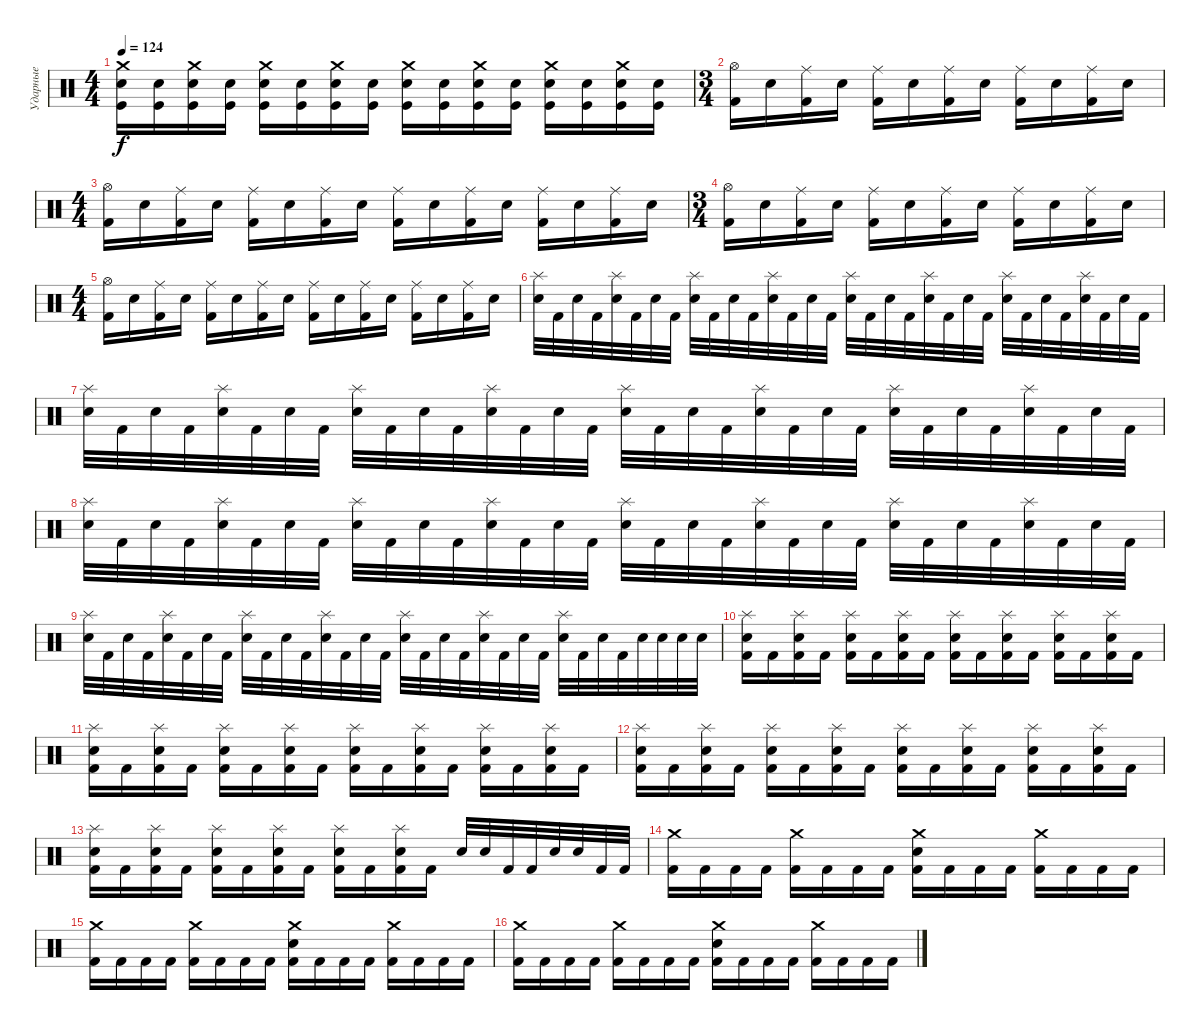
\track ("Ударные" "Ударные") {instrument percussion}
\staff {score}
\articulation defaults
\ts (4 4)
\tempo 124
\clef neutral
\ks c
("Crash medium (hit)" "Electric Snare (hit)" "Kick (hit)").16{dy f} ("Electric Snare (hit)" "Kick (hit)").16 ("Crash medium (hit)" "Electric Snare (hit)" "Kick (hit)").16 ("Electric Snare (hit)" "Kick (hit)").16 ("Crash medium (hit)" "Electric Snare (hit)" "Kick (hit)").16 ("Electric Snare (hit)" "Kick (hit)").16 ("Crash medium (hit)" "Electric Snare (hit)" "Kick (hit)").16 ("Electric Snare (hit)" "Kick (hit)").16 ("Crash medium (hit)" "Electric Snare (hit)" "Kick (hit)").16 ("Electric Snare (hit)" "Kick (hit)").16 ("Crash medium (hit)" "Electric Snare (hit)" "Kick (hit)").16 ("Electric Snare (hit)" "Kick (hit)").16 ("Crash medium (hit)" "Electric Snare (hit)" "Kick (hit)").16 ("Electric Snare (hit)" "Kick (hit)").16 ("Crash medium (hit)" "Electric Snare (hit)" "Kick (hit)").16 ("Electric Snare (hit)" "Kick (hit)").16 |
\ts (3 4)
("Hi-Hat (open)" "Kick (hit) 2").16 "Electric Snare (hit)".16 ("Ride (middle)" "Kick (hit) 2").16 "Electric Snare (hit)".16 ("Ride (middle)" "Kick (hit) 2").16 "Electric Snare (hit)".16 ("Ride (middle)" "Kick (hit) 2").16 "Electric Snare (hit)".16 ("Ride (middle)" "Kick (hit) 2").16 "Electric Snare (hit)".16 ("Ride (middle)" "Kick (hit) 2").16 "Electric Snare (hit)".16 |
\ts (4 4)
("Hi-Hat (open)" "Kick (hit) 2").16 "Electric Snare (hit)".16 ("Ride (middle)" "Kick (hit) 2").16 "Electric Snare (hit)".16 ("Ride (middle)" "Kick (hit) 2").16 "Electric Snare (hit)".16 ("Ride (middle)" "Kick (hit) 2").16 "Electric Snare (hit)".16 ("Ride (middle)" "Kick (hit) 2").16 "Electric Snare (hit)".16 ("Ride (middle)" "Kick (hit) 2").16 "Electric Snare (hit)".16 ("Ride (middle)" "Kick (hit) 2").16 "Electric Snare (hit)".16 ("Ride (middle)" "Kick (hit) 2").16 "Electric Snare (hit)".16 |
\ts (3 4)
("Hi-Hat (open)" "Kick (hit) 2").16 "Electric Snare (hit)".16 ("Ride (middle)" "Kick (hit) 2").16 "Electric Snare (hit)".16 ("Ride (middle)" "Kick (hit) 2").16 "Electric Snare (hit)".16 ("Ride (middle)" "Kick (hit) 2").16 "Electric Snare (hit)".16 ("Ride (middle)" "Kick (hit) 2").16 "Electric Snare (hit)".16 ("Ride (middle)" "Kick (hit) 2").16 "Electric Snare (hit)".16 |
\ts (4 4)
("Hi-Hat (open)" "Kick (hit) 2").16 "Electric Snare (hit)".16 ("Ride (middle)" "Kick (hit) 2").16 "Electric Snare (hit)".16 ("Ride (middle)" "Kick (hit) 2").16 "Electric Snare (hit)".16 ("Ride (middle)" "Kick (hit) 2").16 "Electric Snare (hit)".16 ("Ride (middle)" "Kick (hit) 2").16 "Electric Snare (hit)".16 ("Ride (middle)" "Kick (hit) 2").16 "Electric Snare (hit)".16 ("Ride (middle)" "Kick (hit) 2").16 "Electric Snare (hit)".16 ("Ride (middle)" "Kick (hit) 2").16 "Electric Snare (hit)".16 |
("Splash (hit)" "Electric Snare (hit)").32 "Kick (hit) 2".32 "Electric Snare (hit)".32 "Kick (hit) 2".32 ("Splash (hit)" "Electric Snare (hit)").32 "Kick (hit) 2".32 "Electric Snare (hit)".32 "Kick (hit) 2".32 ("Splash (hit)" "Electric Snare (hit)").32 "Kick (hit) 2".32 "Electric Snare (hit)".32 "Kick (hit) 2".32 ("Splash (hit)" "Electric Snare (hit)").32 "Kick (hit) 2".32 "Electric Snare (hit)".32 "Kick (hit) 2".32 ("Splash (hit)" "Electric Snare (hit)").32 "Kick (hit) 2".32 "Electric Snare (hit)".32 "Kick (hit) 2".32 ("Splash (hit)" "Electric Snare (hit)").32 "Kick (hit) 2".32 "Electric Snare (hit)".32 "Kick (hit) 2".32 ("Splash (hit)" "Electric Snare (hit)").32 "Kick (hit) 2".32 "Electric Snare (hit)".32 "Kick (hit) 2".32 ("Splash (hit)" "Electric Snare (hit)").32 "Kick (hit) 2".32 "Electric Snare (hit)".32 "Kick (hit) 2".32 |
("Splash (hit)" "Electric Snare (hit)").32 "Kick (hit) 2".32 "Electric Snare (hit)".32 "Kick (hit) 2".32 ("Splash (hit)" "Electric Snare (hit)").32 "Kick (hit) 2".32 "Electric Snare (hit)".32 "Kick (hit) 2".32 ("Splash (hit)" "Electric Snare (hit)").32 "Kick (hit) 2".32 "Electric Snare (hit)".32 "Kick (hit) 2".32 ("Splash (hit)" "Electric Snare (hit)").32 "Kick (hit) 2".32 "Electric Snare (hit)".32 "Kick (hit) 2".32 ("Splash (hit)" "Electric Snare (hit)").32 "Kick (hit) 2".32 "Electric Snare (hit)".32 "Kick (hit) 2".32 ("Splash (hit)" "Electric Snare (hit)").32 "Kick (hit) 2".32 "Electric Snare (hit)".32 "Kick (hit) 2".32 ("Splash (hit)" "Electric Snare (hit)").32 "Kick (hit) 2".32 "Electric Snare (hit)".32 "Kick (hit) 2".32 ("Splash (hit)" "Electric Snare (hit)").32 "Kick (hit) 2".32 "Electric Snare (hit)".32 "Kick (hit) 2".32 |
("Splash (hit)" "Electric Snare (hit)").32 "Kick (hit) 2".32 "Electric Snare (hit)".32 "Kick (hit) 2".32 ("Splash (hit)" "Electric Snare (hit)").32 "Kick (hit) 2".32 "Electric Snare (hit)".32 "Kick (hit) 2".32 ("Splash (hit)" "Electric Snare (hit)").32 "Kick (hit) 2".32 "Electric Snare (hit)".32 "Kick (hit) 2".32 ("Splash (hit)" "Electric Snare (hit)").32 "Kick (hit) 2".32 "Electric Snare (hit)".32 "Kick (hit) 2".32 ("Splash (hit)" "Electric Snare (hit)").32 "Kick (hit) 2".32 "Electric Snare (hit)".32 "Kick (hit) 2".32 ("Splash (hit)" "Electric Snare (hit)").32 "Kick (hit) 2".32 "Electric Snare (hit)".32 "Kick (hit) 2".32 ("Splash (hit)" "Electric Snare (hit)").32 "Kick (hit) 2".32 "Electric Snare (hit)".32 "Kick (hit) 2".32 ("Splash (hit)" "Electric Snare (hit)").32 "Kick (hit) 2".32 "Electric Snare (hit)".32 "Kick (hit) 2".32 |
("Splash (hit)" "Electric Snare (hit)").32 "Kick (hit) 2".32 "Electric Snare (hit)".32 "Kick (hit) 2".32 ("Splash (hit)" "Electric Snare (hit)").32 "Kick (hit) 2".32 "Electric Snare (hit)".32 "Kick (hit) 2".32 ("Splash (hit)" "Electric Snare (hit)").32 "Kick (hit) 2".32 "Electric Snare (hit)".32 "Kick (hit) 2".32 ("Splash (hit)" "Electric Snare (hit)").32 "Kick (hit) 2".32 "Electric Snare (hit)".32 "Kick (hit) 2".32 ("Splash (hit)" "Electric Snare (hit)").32 "Kick (hit) 2".32 "Electric Snare (hit)".32 "Kick (hit) 2".32 ("Splash (hit)" "Electric Snare (hit)").32 "Kick (hit) 2".32 "Electric Snare (hit)".32 "Kick (hit) 2".32 ("Splash (hit)" "Electric Snare (hit)").32 "Kick (hit) 2".32 "Electric Snare (hit)".32 "Kick (hit) 2".32 "Electric Snare (hit)".32 "Electric Snare (hit)".32 "Electric Snare (hit)".32 "Electric Snare (hit)".32 |
("Splash (hit)" "Electric Snare (hit)" "Kick (hit) 2").16 "Kick (hit) 2".16 ("Splash (hit)" "Electric Snare (hit)" "Kick (hit) 2").16 "Kick (hit) 2".16 ("Splash (hit)" "Electric Snare (hit)" "Kick (hit) 2").16 "Kick (hit) 2".16 ("Splash (hit)" "Electric Snare (hit)" "Kick (hit) 2").16 "Kick (hit) 2".16 ("Splash (hit)" "Electric Snare (hit)" "Kick (hit) 2").16 "Kick (hit) 2".16 ("Splash (hit)" "Electric Snare (hit)" "Kick (hit) 2").16 "Kick (hit) 2".16 ("Splash (hit)" "Electric Snare (hit)" "Kick (hit) 2").16 "Kick (hit) 2".16 ("Splash (hit)" "Electric Snare (hit)" "Kick (hit) 2").16 "Kick (hit) 2".16 |
("Splash (hit)" "Electric Snare (hit)" "Kick (hit) 2").16 "Kick (hit) 2".16 ("Splash (hit)" "Electric Snare (hit)" "Kick (hit) 2").16 "Kick (hit) 2".16 ("Splash (hit)" "Electric Snare (hit)" "Kick (hit) 2").16 "Kick (hit) 2".16 ("Splash (hit)" "Electric Snare (hit)" "Kick (hit) 2").16 "Kick (hit) 2".16 ("Splash (hit)" "Electric Snare (hit)" "Kick (hit) 2").16 "Kick (hit) 2".16 ("Splash (hit)" "Electric Snare (hit)" "Kick (hit) 2").16 "Kick (hit) 2".16 ("Splash (hit)" "Electric Snare (hit)" "Kick (hit) 2").16 "Kick (hit) 2".16 ("Splash (hit)" "Electric Snare (hit)" "Kick (hit) 2").16 "Kick (hit) 2".16 |
("Splash (hit)" "Electric Snare (hit)" "Kick (hit) 2").16 "Kick (hit) 2".16 ("Splash (hit)" "Electric Snare (hit)" "Kick (hit) 2").16 "Kick (hit) 2".16 ("Splash (hit)" "Electric Snare (hit)" "Kick (hit) 2").16 "Kick (hit) 2".16 ("Splash (hit)" "Electric Snare (hit)" "Kick (hit) 2").16 "Kick (hit) 2".16 ("Splash (hit)" "Electric Snare (hit)" "Kick (hit) 2").16 "Kick (hit) 2".16 ("Splash (hit)" "Electric Snare (hit)" "Kick (hit) 2").16 "Kick (hit) 2".16 ("Splash (hit)" "Electric Snare (hit)" "Kick (hit) 2").16 "Kick (hit) 2".16 ("Splash (hit)" "Electric Snare (hit)" "Kick (hit) 2").16 "Kick (hit) 2".16 |
("Splash (hit)" "Electric Snare (hit)" "Kick (hit) 2").16 "Kick (hit) 2".16 ("Splash (hit)" "Electric Snare (hit)" "Kick (hit) 2").16 "Kick (hit) 2".16 ("Splash (hit)" "Electric Snare (hit)" "Kick (hit) 2").16 "Kick (hit) 2".16 ("Splash (hit)" "Electric Snare (hit)" "Kick (hit) 2").16 "Kick (hit) 2".16 ("Splash (hit)" "Electric Snare (hit)" "Kick (hit) 2").16 "Kick (hit) 2".16 ("Splash (hit)" "Electric Snare (hit)" "Kick (hit) 2").16 "Kick (hit) 2".16 "Electric Snare (hit)".32 "Electric Snare (hit)".32 "Kick (hit) 2".32 "Kick (hit) 2".32 "Electric Snare (hit)".32 "Electric Snare (hit)".32 "Kick (hit) 2".32 "Kick (hit) 2".32 |
("Crash medium (hit)" "Kick (hit) 2").16 "Kick (hit) 2".16 "Kick (hit) 2".16 "Kick (hit) 2".16 ("Crash medium (hit)" "Kick (hit) 2").16 "Kick (hit) 2".16 "Kick (hit) 2".16 "Kick (hit) 2".16 ("Crash medium (hit)" "Electric Snare (hit)" "Kick (hit) 2").16 "Kick (hit) 2".16 "Kick (hit) 2".16 "Kick (hit) 2".16 ("Crash medium (hit)" "Kick (hit) 2").16 "Kick (hit) 2".16 "Kick (hit) 2".16 "Kick (hit) 2".16 |
("Crash medium (hit)" "Kick (hit) 2").16 "Kick (hit) 2".16 "Kick (hit) 2".16 "Kick (hit) 2".16 ("Crash medium (hit)" "Kick (hit) 2").16 "Kick (hit) 2".16 "Kick (hit) 2".16 "Kick (hit) 2".16 ("Crash medium (hit)" "Electric Snare (hit)" "Kick (hit) 2").16 "Kick (hit) 2".16 "Kick (hit) 2".16 "Kick (hit) 2".16 ("Crash medium (hit)" "Kick (hit) 2").16 "Kick (hit) 2".16 "Kick (hit) 2".16 "Kick (hit) 2".16 |
("Crash medium (hit)" "Kick (hit) 2").16 "Kick (hit) 2".16 "Kick (hit) 2".16 "Kick (hit) 2".16 ("Crash medium (hit)" "Kick (hit) 2").16 "Kick (hit) 2".16 "Kick (hit) 2".16 "Kick (hit) 2".16 ("Crash medium (hit)" "Electric Snare (hit)" "Kick (hit) 2").16 "Kick (hit) 2".16 "Kick (hit) 2".16 "Kick (hit) 2".16 ("Crash medium (hit)" "Kick (hit) 2").16 "Kick (hit) 2".16 "Kick (hit) 2".16 "Kick (hit) 2".16
